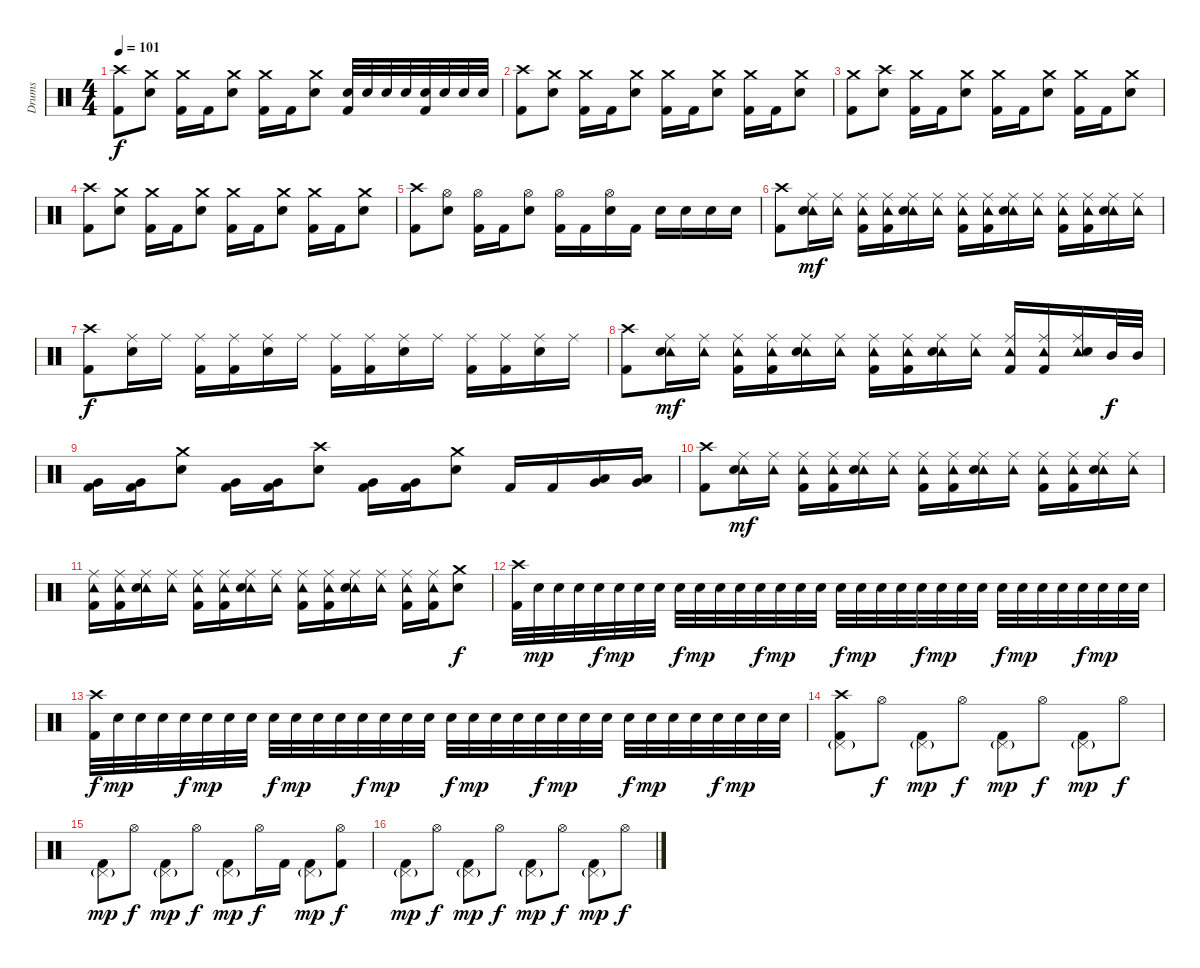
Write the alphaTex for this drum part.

\track ("Drums" "Drums") {instrument percussion}
\staff {score}
\articulation defaults
\ts (4 4)
\tempo 101
\clef neutral
\ks c
("Crash high (hit)" "Kick (hit) 2").8{dy f} ("Crash medium (hit)" "Snare (hit) 2").8 ("Crash medium (hit)" "Kick (hit) 2").16 "Kick (hit) 2".16 ("Crash medium (hit)" "Snare (hit) 2").8 ("Crash medium (hit)" "Kick (hit) 2").16 "Kick (hit) 2".16 ("Crash medium (hit)" "Snare (hit) 2").8 ("Snare (hit) 2" "Kick (hit) 2").32 "Snare (hit) 2".32 "Snare (hit) 2".32 "Snare (hit) 2".32 ("Snare (hit) 2" "Kick (hit) 2").32 "Snare (hit) 2".32 "Snare (hit) 2".32 "Snare (hit) 2".32 |
("Crash high (hit)" "Kick (hit) 2").8 ("Crash medium (hit)" "Snare (hit) 2").8 ("Crash medium (hit)" "Kick (hit) 2").16 "Kick (hit) 2".16 ("Crash medium (hit)" "Snare (hit) 2").8 ("Crash medium (hit)" "Kick (hit) 2").16 "Kick (hit) 2".16 ("Crash medium (hit)" "Snare (hit) 2").8 ("Crash medium (hit)" "Kick (hit) 2").16 "Kick (hit) 2".16 ("Crash medium (hit)" "Snare (hit) 2").8 |
("Crash medium (hit)" "Kick (hit) 2").8 ("Crash high (hit)" "Snare (hit) 2").8 ("Crash medium (hit)" "Kick (hit) 2").16 "Kick (hit) 2".16 ("Crash medium (hit)" "Snare (hit) 2").8 ("Crash medium (hit)" "Kick (hit) 2").16 "Kick (hit) 2".16 ("Crash medium (hit)" "Snare (hit) 2").8 ("Crash medium (hit)" "Kick (hit) 2").16 "Kick (hit) 2".16 ("Crash medium (hit)" "Snare (hit) 2").8 |
("Crash high (hit)" "Kick (hit) 2").8 ("Crash medium (hit)" "Snare (hit) 2").8 ("Crash medium (hit)" "Kick (hit) 2").16 "Kick (hit) 2".16 ("Crash medium (hit)" "Snare (hit) 2").8 ("Crash medium (hit)" "Kick (hit) 2").16 "Kick (hit) 2".16 ("Crash medium (hit)" "Snare (hit) 2").8 ("Crash medium (hit)" "Kick (hit) 2").16 "Kick (hit) 2".16 ("Crash medium (hit)" "Snare (hit) 2").8 |
("Crash high (hit)" "Kick (hit) 2").8 ("Hi-Hat (open)" "Snare (hit) 2").8 ("Hi-Hat (open)" "Kick (hit) 2").16 "Kick (hit) 2".16 ("Hi-Hat (open)" "Snare (hit) 2").8 ("Hi-Hat (open)" "Kick (hit) 2").16 "Kick (hit) 2".16 ("Hi-Hat (open)" "Snare (hit) 2").16 "Kick (hit) 2".16 "Snare (hit) 2".16 "Snare (hit) 2".16 "Snare (hit) 2".16 "Snare (hit) 2".16 |
("Crash high (hit)" "Kick (hit) 2").8 ("Ride (middle)" "Tambourine (hit)" "Snare (hit) 2").16{dy mf} ("Ride (middle)" "Tambourine (hit)").16 ("Ride (middle)" "Tambourine (hit)" "Kick (hit) 2").16 ("Ride (middle)" "Tambourine (hit)" "Kick (hit) 2").16 ("Ride (middle)" "Tambourine (hit)" "Snare (hit) 2").16 ("Ride (middle)" "Tambourine (hit)").16 ("Ride (middle)" "Tambourine (hit)" "Kick (hit) 2").16 ("Ride (middle)" "Tambourine (hit)" "Kick (hit) 2").16 ("Ride (middle)" "Tambourine (hit)" "Snare (hit) 2").16 ("Ride (middle)" "Tambourine (hit)").16 ("Ride (middle)" "Tambourine (hit)" "Kick (hit) 2").16 ("Ride (middle)" "Tambourine (hit)" "Kick (hit) 2").16 ("Ride (middle)" "Tambourine (hit)" "Snare (hit) 2").16 ("Ride (middle)" "Tambourine (hit)").16 |
("Crash high (hit)" "Kick (hit) 2").8{dy f} ("Ride (middle)" "Snare (hit) 2").16 "Ride (middle)".16 ("Ride (middle)" "Kick (hit) 2").16 ("Ride (middle)" "Kick (hit) 2").16 ("Ride (middle)" "Snare (hit) 2").16 "Ride (middle)".16 ("Ride (middle)" "Kick (hit) 2").16 ("Ride (middle)" "Kick (hit) 2").16 ("Ride (middle)" "Snare (hit) 2").16 "Ride (middle)".16 ("Ride (middle)" "Kick (hit) 2").16 ("Ride (middle)" "Kick (hit) 2").16 ("Ride (middle)" "Snare (hit) 2").16 "Ride (middle)".16 |
("Crash high (hit)" "Kick (hit) 2").8 ("Ride (middle)" "Tambourine (hit)" "Snare (hit) 2").16{dy mf} ("Ride (middle)" "Tambourine (hit)").16 ("Ride (middle)" "Tambourine (hit)" "Kick (hit) 2").16 ("Ride (middle)" "Tambourine (hit)" "Kick (hit) 2").16 ("Ride (middle)" "Tambourine (hit)" "Snare (hit) 2").16 ("Ride (middle)" "Tambourine (hit)").16 ("Ride (middle)" "Tambourine (hit)" "Kick (hit) 2").16 ("Ride (middle)" "Tambourine (hit)" "Kick (hit) 2").16 ("Ride (middle)" "Tambourine (hit)" "Snare (hit) 2").16 ("Ride (middle)" "Tambourine (hit)").16 ("Ride (middle)" "Tambourine (hit)" "Kick (hit) 2").16 ("Ride (middle)" "Tambourine (hit)" "Kick (hit) 2").16 ("Ride (middle)" "Tambourine (hit)" "Snare (hit) 2").16 "Mid Tom (hit)".32{dy f} "Mid Tom (hit)".32 |
("Very Low Tom (hit)" "Kick (hit) 2").16 ("Very Low Tom (hit)" "Kick (hit) 2").16 ("Crash medium (hit)" "Snare (hit) 2").8 ("Very Low Tom (hit)" "Kick (hit) 2").16 ("Very Low Tom (hit)" "Kick (hit) 2").16 ("Crash high (hit)" "Snare (hit) 2").8 ("Very Low Tom (hit)" "Kick (hit) 2").16 ("Very Low Tom (hit)" "Kick (hit) 2").16 ("Crash medium (hit)" "Snare (hit) 2").8 "Kick (hit) 2".16 "Kick (hit) 2".16 ("Low Tom (hit)" "Very Low Tom (hit)").16 ("Low Tom (hit)" "Very Low Tom (hit)").16 |
("Crash high (hit)" "Kick (hit) 2").8 ("Ride (middle)" "Tambourine (hit)" "Snare (hit) 2").16{dy mf} ("Ride (middle)" "Tambourine (hit)").16 ("Ride (middle)" "Tambourine (hit)" "Kick (hit) 2").16 ("Ride (middle)" "Tambourine (hit)" "Kick (hit) 2").16 ("Ride (middle)" "Tambourine (hit)" "Snare (hit) 2").16 ("Ride (middle)" "Tambourine (hit)").16 ("Ride (middle)" "Tambourine (hit)" "Kick (hit) 2").16 ("Ride (middle)" "Tambourine (hit)" "Kick (hit) 2").16 ("Ride (middle)" "Tambourine (hit)" "Snare (hit) 2").16 ("Ride (middle)" "Tambourine (hit)").16 ("Ride (middle)" "Tambourine (hit)" "Kick (hit) 2").16 ("Ride (middle)" "Tambourine (hit)" "Kick (hit) 2").16 ("Ride (middle)" "Tambourine (hit)" "Snare (hit) 2").16 ("Ride (middle)" "Tambourine (hit)").16 |
("Ride (middle)" "Tambourine (hit)" "Kick (hit) 2").16 ("Ride (middle)" "Tambourine (hit)" "Kick (hit) 2").16 ("Ride (middle)" "Tambourine (hit)" "Snare (hit) 2").16 ("Ride (middle)" "Tambourine (hit)").16 ("Ride (middle)" "Tambourine (hit)" "Kick (hit) 2").16 ("Ride (middle)" "Tambourine (hit)" "Kick (hit) 2").16 ("Ride (middle)" "Tambourine (hit)" "Snare (hit) 2").16 ("Ride (middle)" "Tambourine (hit)").16 ("Ride (middle)" "Tambourine (hit)" "Kick (hit) 2").16 ("Ride (middle)" "Tambourine (hit)" "Kick (hit) 2").16 ("Ride (middle)" "Tambourine (hit)" "Snare (hit) 2").16 ("Ride (middle)" "Tambourine (hit)").16 ("Ride (middle)" "Tambourine (hit)" "Kick (hit) 2").16 ("Ride (middle)" "Tambourine (hit)" "Kick (hit) 2").16 ("Crash medium (hit)" "Snare (hit) 2").8{dy f} |
("Crash high (hit)" "Kick (hit) 2").32 "Snare (hit) 2".32{dy mp} "Snare (hit) 2".32 "Snare (hit) 2".32 "Snare (hit) 2".32{dy f} "Snare (hit) 2".32{dy mp} "Snare (hit) 2".32 "Snare (hit) 2".32 "Snare (hit) 2".32{dy f} "Snare (hit) 2".32{dy mp} "Snare (hit) 2".32 "Snare (hit) 2".32 "Snare (hit) 2".32{dy f} "Snare (hit) 2".32{dy mp} "Snare (hit) 2".32 "Snare (hit) 2".32 "Snare (hit) 2".32{dy f} "Snare (hit) 2".32{dy mp} "Snare (hit) 2".32 "Snare (hit) 2".32 "Snare (hit) 2".32{dy f} "Snare (hit) 2".32{dy mp} "Snare (hit) 2".32 "Snare (hit) 2".32 "Snare (hit) 2".32{dy f} "Snare (hit) 2".32{dy mp} "Snare (hit) 2".32 "Snare (hit) 2".32 "Snare (hit) 2".32{dy f} "Snare (hit) 2".32{dy mp} "Snare (hit) 2".32 "Snare (hit) 2".32 |
("Crash high (hit)" "Kick (hit) 2").32{dy f} "Snare (hit) 2".32{dy mp} "Snare (hit) 2".32 "Snare (hit) 2".32 "Snare (hit) 2".32{dy f} "Snare (hit) 2".32{dy mp} "Snare (hit) 2".32 "Snare (hit) 2".32 "Snare (hit) 2".32{dy f} "Snare (hit) 2".32{dy mp} "Snare (hit) 2".32 "Snare (hit) 2".32 "Snare (hit) 2".32{dy f} "Snare (hit) 2".32{dy mp} "Snare (hit) 2".32 "Snare (hit) 2".32 "Snare (hit) 2".32{dy f} "Snare (hit) 2".32{dy mp} "Snare (hit) 2".32 "Snare (hit) 2".32 "Snare (hit) 2".32{dy f} "Snare (hit) 2".32{dy mp} "Snare (hit) 2".32 "Snare (hit) 2".32 "Snare (hit) 2".32{dy f} "Snare (hit) 2".32{dy mp} "Snare (hit) 2".32 "Snare (hit) 2".32 "Snare (hit) 2".32{dy f} "Snare (hit) 2".32{dy mp} "Snare (hit) 2".32 "Snare (hit) 2".32 |
("Crash high (hit)" "Pedal Hi-Hat (hit)"{g} "Kick (hit) 2").8 "Hi-Hat (open)".8{dy f} ("Pedal Hi-Hat (hit)"{g} "Kick (hit) 2").8{dy mp} "Hi-Hat (open)".8{dy f} ("Pedal Hi-Hat (hit)"{g} "Kick (hit) 2").8{dy mp} "Hi-Hat (open)".8{dy f} ("Pedal Hi-Hat (hit)"{g} "Kick (hit) 2").8{dy mp} "Hi-Hat (open)".8{dy f} |
("Pedal Hi-Hat (hit)"{g} "Kick (hit) 2").8{dy mp} "Hi-Hat (open)".8{dy f} ("Pedal Hi-Hat (hit)"{g} "Kick (hit) 2").8{dy mp} "Hi-Hat (open)".8{dy f} ("Pedal Hi-Hat (hit)"{g} "Kick (hit) 2").8{dy mp} "Hi-Hat (open)".16{dy f} "Kick (hit) 2".16 ("Pedal Hi-Hat (hit)"{g} "Kick (hit) 2").8{dy mp} ("Hi-Hat (open)" "Kick (hit) 2").8{dy f} |
("Pedal Hi-Hat (hit)"{g} "Kick (hit) 2").8{dy mp} "Hi-Hat (open)".8{dy f} ("Pedal Hi-Hat (hit)"{g} "Kick (hit) 2").8{dy mp} "Hi-Hat (open)".8{dy f} ("Pedal Hi-Hat (hit)"{g} "Kick (hit) 2").8{dy mp} "Hi-Hat (open)".8{dy f} ("Pedal Hi-Hat (hit)"{g} "Kick (hit) 2").8{dy mp} "Hi-Hat (open)".8{dy f}
